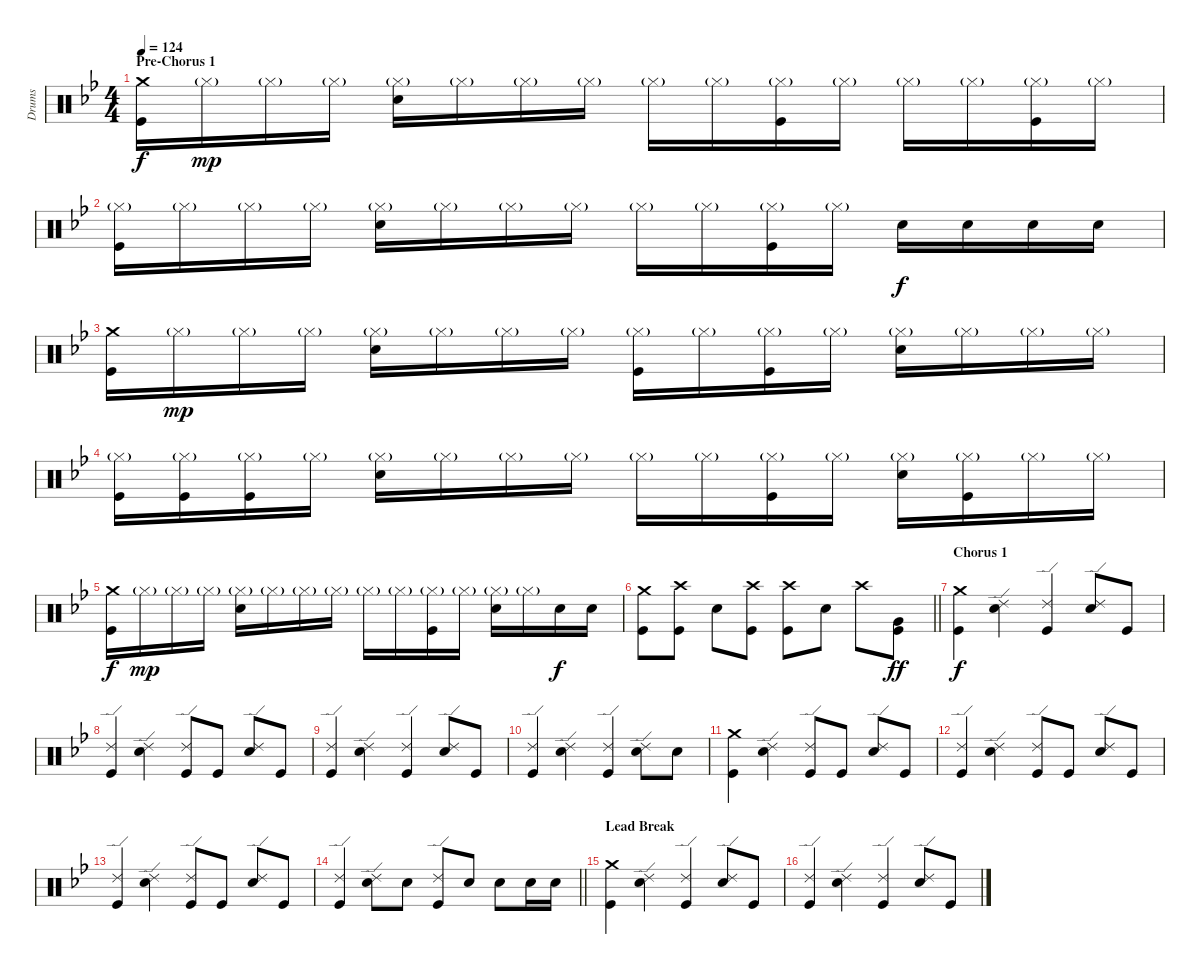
\track ("Drums" "Drums") {instrument percussion}
\staff {score}
\articulation defaults
\ts (4 4)
\section ("" "Pre-Chorus 1")
\tempo 124
\clef neutral
\ks gminor
("Crash medium (hit)" "Kick (hit)").16{dy f} "Hi-Hat (closed)"{g}.16{dy mp} "Hi-Hat (closed)"{g}.16 "Hi-Hat (closed)"{g}.16 ("Hi-Hat (closed)"{g} "Snare (hit) 2").16 "Hi-Hat (closed)"{g}.16 "Hi-Hat (closed)"{g}.16 "Hi-Hat (closed)"{g}.16 "Hi-Hat (closed)"{g}.16 "Hi-Hat (closed)"{g}.16 ("Hi-Hat (closed)"{g} "Kick (hit)").16 "Hi-Hat (closed)"{g}.16 "Hi-Hat (closed)"{g}.16 "Hi-Hat (closed)"{g}.16 ("Hi-Hat (closed)"{g} "Kick (hit)").16 "Hi-Hat (closed)"{g}.16 |
("Hi-Hat (closed)"{g} "Kick (hit)").16 "Hi-Hat (closed)"{g}.16 "Hi-Hat (closed)"{g}.16 "Hi-Hat (closed)"{g}.16 ("Hi-Hat (closed)"{g} "Snare (hit) 2").16 "Hi-Hat (closed)"{g}.16 "Hi-Hat (closed)"{g}.16 "Hi-Hat (closed)"{g}.16 "Hi-Hat (closed)"{g}.16 "Hi-Hat (closed)"{g}.16 ("Hi-Hat (closed)"{g} "Kick (hit)").16 "Hi-Hat (closed)"{g}.16 "Snare (hit) 2".16{dy f} "Snare (hit) 2".16 "Snare (hit) 2".16 "Snare (hit) 2".16 |
("Crash medium (hit)" "Kick (hit)").16 "Hi-Hat (closed)"{g}.16{dy mp} "Hi-Hat (closed)"{g}.16 "Hi-Hat (closed)"{g}.16 ("Hi-Hat (closed)"{g} "Snare (hit) 2").16 "Hi-Hat (closed)"{g}.16 "Hi-Hat (closed)"{g}.16 "Hi-Hat (closed)"{g}.16 ("Hi-Hat (closed)"{g} "Kick (hit)").16 "Hi-Hat (closed)"{g}.16 ("Hi-Hat (closed)"{g} "Kick (hit)").16 "Hi-Hat (closed)"{g}.16 ("Hi-Hat (closed)"{g} "Snare (hit) 2").16 "Hi-Hat (closed)"{g}.16 "Hi-Hat (closed)"{g}.16 "Hi-Hat (closed)"{g}.16 |
("Hi-Hat (closed)"{g} "Kick (hit)").16 ("Hi-Hat (closed)"{g} "Kick (hit)").16 ("Hi-Hat (closed)"{g} "Kick (hit)").16 "Hi-Hat (closed)"{g}.16 ("Hi-Hat (closed)"{g} "Snare (hit) 2").16 "Hi-Hat (closed)"{g}.16 "Hi-Hat (closed)"{g}.16 "Hi-Hat (closed)"{g}.16 "Hi-Hat (closed)"{g}.16 "Hi-Hat (closed)"{g}.16 ("Hi-Hat (closed)"{g} "Kick (hit)").16 "Hi-Hat (closed)"{g}.16 ("Hi-Hat (closed)"{g} "Snare (hit) 2").16 ("Hi-Hat (closed)"{g} "Kick (hit)").16 "Hi-Hat (closed)"{g}.16 "Hi-Hat (closed)"{g}.16 |
("Crash medium (hit)" "Kick (hit)").16{dy f} "Hi-Hat (closed)"{g}.16{dy mp} "Hi-Hat (closed)"{g}.16 "Hi-Hat (closed)"{g}.16 ("Hi-Hat (closed)"{g} "Snare (hit) 2").16 "Hi-Hat (closed)"{g}.16 "Hi-Hat (closed)"{g}.16 "Hi-Hat (closed)"{g}.16 "Hi-Hat (closed)"{g}.16 "Hi-Hat (closed)"{g}.16 ("Hi-Hat (closed)"{g} "Kick (hit)").16 "Hi-Hat (closed)"{g}.16 ("Hi-Hat (closed)"{g} "Snare (hit) 2").16 "Hi-Hat (closed)"{g}.16 "Snare (hit) 2".16{dy f} "Snare (hit) 2".16 |
\barLineRight lightlight
("Crash medium (hit)" "Kick (hit)").8 ("Crash high (hit)" "Kick (hit)").8 "Snare (hit) 2".8 ("Crash high (hit)" "Kick (hit)").8 ("Crash high (hit)" "Kick (hit)").8 "Snare (hit) 2".8 "Crash high (hit)".8 ("Very Low Tom (hit)" "Kick (hit)").8{dy ff} |
\section ("" "Chorus 1")
("Crash medium (hit)" "Kick (hit)").4{dy f} ("Ride (edge) 2" "Snare (hit) 2").4 ("Ride (edge) 2" "Kick (hit)").4 ("Ride (edge) 2" "Snare (hit) 2").8 "Kick (hit)".8 |
("Ride (edge) 2" "Kick (hit)").4 ("Ride (edge) 2" "Snare (hit) 2").4 ("Ride (edge) 2" "Kick (hit)").8 "Kick (hit)".8 ("Ride (edge) 2" "Snare (hit) 2").8 "Kick (hit)".8 |
("Ride (edge) 2" "Kick (hit)").4 ("Ride (edge) 2" "Snare (hit) 2").4 ("Ride (edge) 2" "Kick (hit)").4 ("Ride (edge) 2" "Snare (hit) 2").8 "Kick (hit)".8 |
("Ride (edge) 2" "Kick (hit)").4 ("Ride (edge) 2" "Snare (hit) 2").4 ("Ride (edge) 2" "Kick (hit)").4 ("Ride (edge) 2" "Snare (hit) 2").8 "Snare (hit) 2".8 |
("Crash medium (hit)" "Kick (hit)").4 ("Ride (edge) 2" "Snare (hit) 2").4 ("Ride (edge) 2" "Kick (hit)").8 "Kick (hit)".8 ("Ride (edge) 2" "Snare (hit) 2").8 "Kick (hit)".8 |
("Ride (edge) 2" "Kick (hit)").4 ("Ride (edge) 2" "Snare (hit) 2").4 ("Ride (edge) 2" "Kick (hit)").8 "Kick (hit)".8 ("Ride (edge) 2" "Snare (hit) 2").8 "Kick (hit)".8 |
("Ride (edge) 2" "Kick (hit)").4 ("Ride (edge) 2" "Snare (hit) 2").4 ("Ride (edge) 2" "Kick (hit)").8 "Kick (hit)".8 ("Ride (edge) 2" "Snare (hit) 2").8 "Kick (hit)".8 |
\barLineRight lightlight
("Ride (edge) 2" "Kick (hit)").4 ("Ride (edge) 2" "Snare (hit) 2").8 "Snare (hit) 2".8 ("Ride (edge) 2" "Kick (hit)").8 "Snare (hit) 2".8 "Snare (hit) 2".8 "Snare (hit) 2".16 "Snare (hit) 2".16 |
\section ("" "Lead Break")
("Crash medium (hit)" "Kick (hit)").4 ("Ride (edge) 2" "Snare (hit) 2").4 ("Ride (edge) 2" "Kick (hit)").4 ("Ride (edge) 2" "Snare (hit) 2").8 "Kick (hit)".8 |
("Ride (edge) 2" "Kick (hit)").4 ("Ride (edge) 2" "Snare (hit) 2").4 ("Ride (edge) 2" "Kick (hit)").4 ("Ride (edge) 2" "Snare (hit) 2").8 "Kick (hit)".8
